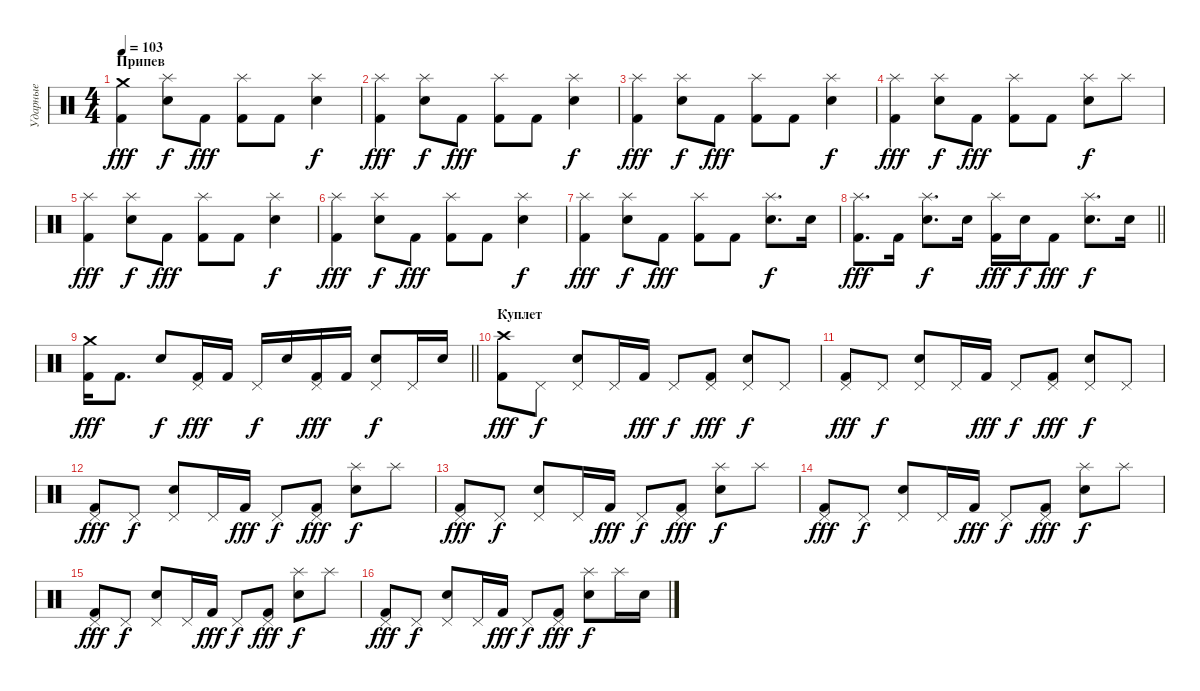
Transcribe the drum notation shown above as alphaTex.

\track ("Ударные" "Ударные") {instrument percussion}
\staff {score}
\articulation defaults
\ts (4 4)
\section ("" "Припев")
\tempo 103
\clef neutral
\ks c
("Crash medium (hit)" "Kick (hit) 2").4{dy fff} ("Splash (hit)" "Electric Snare (hit)").8{dy f} "Kick (hit) 2".8{dy fff} ("Splash (hit)" "Kick (hit) 2").8 "Kick (hit) 2".8 ("Splash (hit)" "Electric Snare (hit)").4{dy f} |
("Splash (hit)" "Kick (hit) 2").4{dy fff} ("Splash (hit)" "Electric Snare (hit)").8{dy f} "Kick (hit) 2".8{dy fff} ("Splash (hit)" "Kick (hit) 2").8 "Kick (hit) 2".8 ("Splash (hit)" "Electric Snare (hit)").4{dy f} |
("Splash (hit)" "Kick (hit) 2").4{dy fff} ("Splash (hit)" "Electric Snare (hit)").8{dy f} "Kick (hit) 2".8{dy fff} ("Splash (hit)" "Kick (hit) 2").8 "Kick (hit) 2".8 ("Splash (hit)" "Electric Snare (hit)").4{dy f} |
("Splash (hit)" "Kick (hit) 2").4{dy fff} ("Splash (hit)" "Electric Snare (hit)").8{dy f} "Kick (hit) 2".8{dy fff} ("Splash (hit)" "Kick (hit) 2").8 "Kick (hit) 2".8 ("Splash (hit)" "Electric Snare (hit)").8{dy f} "Splash (hit)".8 |
("Splash (hit)" "Kick (hit) 2").4{dy fff} ("Splash (hit)" "Electric Snare (hit)").8{dy f} "Kick (hit) 2".8{dy fff} ("Splash (hit)" "Kick (hit) 2").8 "Kick (hit) 2".8 ("Splash (hit)" "Electric Snare (hit)").4{dy f} |
("Splash (hit)" "Kick (hit) 2").4{dy fff} ("Splash (hit)" "Electric Snare (hit)").8{dy f} "Kick (hit) 2".8{dy fff} ("Splash (hit)" "Kick (hit) 2").8 "Kick (hit) 2".8 ("Splash (hit)" "Electric Snare (hit)").4{dy f} |
("Splash (hit)" "Kick (hit) 2").4{dy fff} ("Splash (hit)" "Electric Snare (hit)").8{dy f} "Kick (hit) 2".8{dy fff} ("Splash (hit)" "Kick (hit) 2").8 "Kick (hit) 2".8 ("Splash (hit)" "Electric Snare (hit)").8{d dy f} "Electric Snare (hit)".16 |
\barLineRight lightlight
("Splash (hit)" "Kick (hit) 2").8{d dy fff} "Kick (hit) 2".16 ("Splash (hit)" "Electric Snare (hit)").8{d dy f} "Electric Snare (hit)".16 ("Splash (hit)" "Kick (hit) 2").16{dy fff} "Electric Snare (hit)".16{dy f} "Kick (hit) 2".8{dy fff} ("Splash (hit)" "Electric Snare (hit)").8{d dy f} "Electric Snare (hit)".16 |
\barLineRight lightlight
("Crash medium (hit)" "Kick (hit) 2").16{dy fff} "Kick (hit) 2".8{d} "Electric Snare (hit)".8{dy f} ("Pedal Hi-Hat (hit)" "Kick (hit) 2").16{dy fff} "Kick (hit) 2".16 "Pedal Hi-Hat (hit)".16{dy f} "Electric Snare (hit)".16 ("Pedal Hi-Hat (hit)" "Kick (hit) 2").16{dy fff} "Kick (hit) 2".16 ("Pedal Hi-Hat (hit)" "Electric Snare (hit)").8{dy f} "Pedal Hi-Hat (hit)".16 "Electric Snare (hit)".16 |
\section ("" "Куплет")
("Crash high (hit)" "Kick (hit) 2").8{dy fff} "Pedal Hi-Hat (hit)".8{dy f} ("Pedal Hi-Hat (hit)" "Electric Snare (hit)").8 "Pedal Hi-Hat (hit)".16 "Kick (hit) 2".16{dy fff} "Pedal Hi-Hat (hit)".8{dy f} ("Pedal Hi-Hat (hit)" "Kick (hit) 2").8{dy fff} ("Pedal Hi-Hat (hit)" "Electric Snare (hit)").8{dy f} "Pedal Hi-Hat (hit)".8 |
("Pedal Hi-Hat (hit)" "Kick (hit) 2").8{dy fff} "Pedal Hi-Hat (hit)".8{dy f} ("Pedal Hi-Hat (hit)" "Electric Snare (hit)").8 "Pedal Hi-Hat (hit)".16 "Kick (hit) 2".16{dy fff} "Pedal Hi-Hat (hit)".8{dy f} ("Pedal Hi-Hat (hit)" "Kick (hit) 2").8{dy fff} ("Pedal Hi-Hat (hit)" "Electric Snare (hit)").8{dy f} "Pedal Hi-Hat (hit)".8 |
("Pedal Hi-Hat (hit)" "Kick (hit) 2").8{dy fff} "Pedal Hi-Hat (hit)".8{dy f} ("Pedal Hi-Hat (hit)" "Electric Snare (hit)").8 "Pedal Hi-Hat (hit)".16 "Kick (hit) 2".16{dy fff} "Pedal Hi-Hat (hit)".8{dy f} ("Pedal Hi-Hat (hit)" "Kick (hit) 2").8{dy fff} ("Splash (hit)" "Electric Snare (hit)").8{dy f} "Splash (hit)".8 |
("Pedal Hi-Hat (hit)" "Kick (hit) 2").8{dy fff} "Pedal Hi-Hat (hit)".8{dy f} ("Pedal Hi-Hat (hit)" "Electric Snare (hit)").8 "Pedal Hi-Hat (hit)".16 "Kick (hit) 2".16{dy fff} "Pedal Hi-Hat (hit)".8{dy f} ("Pedal Hi-Hat (hit)" "Kick (hit) 2").8{dy fff} ("Splash (hit)" "Electric Snare (hit)").8{dy f} "Splash (hit)".8 |
("Pedal Hi-Hat (hit)" "Kick (hit) 2").8{dy fff} "Pedal Hi-Hat (hit)".8{dy f} ("Pedal Hi-Hat (hit)" "Electric Snare (hit)").8 "Pedal Hi-Hat (hit)".16 "Kick (hit) 2".16{dy fff} "Pedal Hi-Hat (hit)".8{dy f} ("Pedal Hi-Hat (hit)" "Kick (hit) 2").8{dy fff} ("Splash (hit)" "Electric Snare (hit)").8{dy f} "Splash (hit)".8 |
("Pedal Hi-Hat (hit)" "Kick (hit) 2").8{dy fff} "Pedal Hi-Hat (hit)".8{dy f} ("Pedal Hi-Hat (hit)" "Electric Snare (hit)").8 "Pedal Hi-Hat (hit)".16 "Kick (hit) 2".16{dy fff} "Pedal Hi-Hat (hit)".8{dy f} ("Pedal Hi-Hat (hit)" "Kick (hit) 2").8{dy fff} ("Splash (hit)" "Electric Snare (hit)").8{dy f} "Splash (hit)".8 |
("Pedal Hi-Hat (hit)" "Kick (hit) 2").8{dy fff} "Pedal Hi-Hat (hit)".8{dy f} ("Pedal Hi-Hat (hit)" "Electric Snare (hit)").8 "Pedal Hi-Hat (hit)".16 "Kick (hit) 2".16{dy fff} "Pedal Hi-Hat (hit)".8{dy f} ("Pedal Hi-Hat (hit)" "Kick (hit) 2").8{dy fff} ("Splash (hit)" "Electric Snare (hit)").8{dy f} "Splash (hit)".16 "Electric Snare (hit)".16
